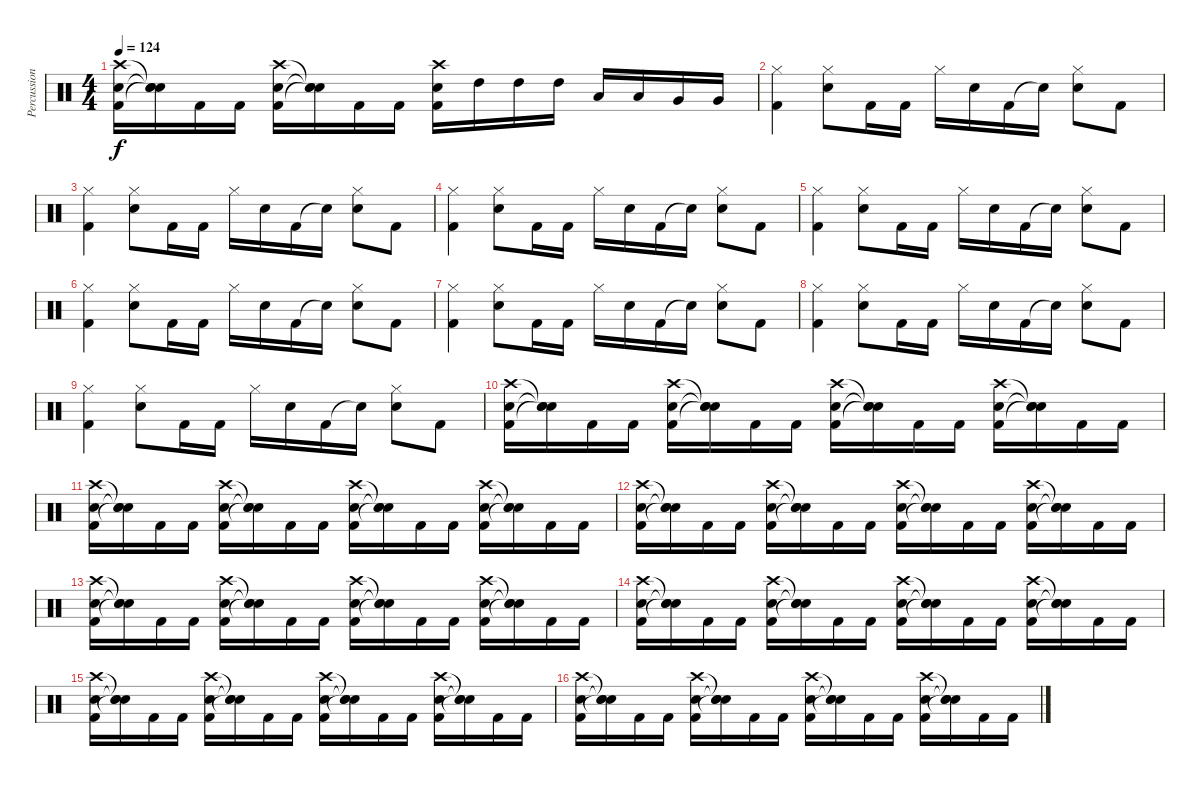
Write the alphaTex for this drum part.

\track ("Percussions" "Percussion") {instrument percussion}
\staff {score}
\articulation defaults
\ts (4 4)
\tempo 124
\clef neutral
\ks c
("Kick (hit) 2" "Electric Snare (hit)" "Crash high (hit)").16{dy f} ("Snare (hit)"{t} "Snare (hit)"{t} "Snare (hit)"{t}).16 "Kick (hit) 2".16 "Kick (hit) 2".16 ("Kick (hit) 2" "Electric Snare (hit)" "Crash high (hit)").16 ("Snare (hit)"{t} "Snare (hit)"{t} "Snare (hit)"{t}).16 "Kick (hit) 2".16 "Kick (hit) 2".16 ("Kick (hit) 2" "Electric Snare (hit)" "Crash high (hit)").16 "High Tom (hit)".16 "High Tom (hit)".16 "High Tom (hit)".16 "Low Tom (hit)".16 "Low Tom (hit)".16 "Very Low Tom (hit)".16 "Very Low Tom (hit)".16 |
("Kick (hit) 2" "Hi-Hat (closed)").4 ("Electric Snare (hit)" "Hi-Hat (closed)").8 "Kick (hit) 2".16 "Kick (hit) 2".16 "Hi-Hat (closed)".16 "Electric Snare (hit)".16 "Kick (hit) 2".16 "Snare (hit)"{t}.16 ("Electric Snare (hit)" "Hi-Hat (closed)").8 "Kick (hit) 2".8 |
("Kick (hit) 2" "Hi-Hat (closed)").4 ("Electric Snare (hit)" "Hi-Hat (closed)").8 "Kick (hit) 2".16 "Kick (hit) 2".16 "Hi-Hat (closed)".16 "Electric Snare (hit)".16 "Kick (hit) 2".16 "Snare (hit)"{t}.16 ("Electric Snare (hit)" "Hi-Hat (closed)").8 "Kick (hit) 2".8 |
("Kick (hit) 2" "Hi-Hat (closed)").4 ("Electric Snare (hit)" "Hi-Hat (closed)").8 "Kick (hit) 2".16 "Kick (hit) 2".16 "Hi-Hat (closed)".16 "Electric Snare (hit)".16 "Kick (hit) 2".16 "Snare (hit)"{t}.16 ("Electric Snare (hit)" "Hi-Hat (closed)").8 "Kick (hit) 2".8 |
("Kick (hit) 2" "Hi-Hat (closed)").4 ("Electric Snare (hit)" "Hi-Hat (closed)").8 "Kick (hit) 2".16 "Kick (hit) 2".16 "Hi-Hat (closed)".16 "Electric Snare (hit)".16 "Kick (hit) 2".16 "Snare (hit)"{t}.16 ("Electric Snare (hit)" "Hi-Hat (closed)").8 "Kick (hit) 2".8 |
("Kick (hit) 2" "Hi-Hat (closed)").4 ("Electric Snare (hit)" "Hi-Hat (closed)").8 "Kick (hit) 2".16 "Kick (hit) 2".16 "Hi-Hat (closed)".16 "Electric Snare (hit)".16 "Kick (hit) 2".16 "Snare (hit)"{t}.16 ("Electric Snare (hit)" "Hi-Hat (closed)").8 "Kick (hit) 2".8 |
("Kick (hit) 2" "Hi-Hat (closed)").4 ("Electric Snare (hit)" "Hi-Hat (closed)").8 "Kick (hit) 2".16 "Kick (hit) 2".16 "Hi-Hat (closed)".16 "Electric Snare (hit)".16 "Kick (hit) 2".16 "Snare (hit)"{t}.16 ("Electric Snare (hit)" "Hi-Hat (closed)").8 "Kick (hit) 2".8 |
("Kick (hit) 2" "Hi-Hat (closed)").4 ("Electric Snare (hit)" "Hi-Hat (closed)").8 "Kick (hit) 2".16 "Kick (hit) 2".16 "Hi-Hat (closed)".16 "Electric Snare (hit)".16 "Kick (hit) 2".16 "Snare (hit)"{t}.16 ("Electric Snare (hit)" "Hi-Hat (closed)").8 "Kick (hit) 2".8 |
("Kick (hit) 2" "Hi-Hat (closed)").4 ("Electric Snare (hit)" "Hi-Hat (closed)").8 "Kick (hit) 2".16 "Kick (hit) 2".16 "Hi-Hat (closed)".16 "Electric Snare (hit)".16 "Kick (hit) 2".16 "Snare (hit)"{t}.16 ("Electric Snare (hit)" "Hi-Hat (closed)").8 "Kick (hit) 2".8 |
("Kick (hit) 2" "Electric Snare (hit)" "Crash high (hit)").16 ("Snare (hit)"{t} "Snare (hit)"{t} "Snare (hit)"{t}).16 "Kick (hit) 2".16 "Kick (hit) 2".16 ("Kick (hit) 2" "Electric Snare (hit)" "Crash high (hit)").16 ("Snare (hit)"{t} "Snare (hit)"{t} "Snare (hit)"{t}).16 "Kick (hit) 2".16 "Kick (hit) 2".16 ("Kick (hit) 2" "Electric Snare (hit)" "Crash high (hit)").16 ("Snare (hit)"{t} "Snare (hit)"{t} "Snare (hit)"{t}).16 "Kick (hit) 2".16 "Kick (hit) 2".16 ("Kick (hit) 2" "Electric Snare (hit)" "Crash high (hit)").16 ("Snare (hit)"{t} "Snare (hit)"{t} "Snare (hit)"{t}).16 "Kick (hit) 2".16 "Kick (hit) 2".16 |
("Kick (hit) 2" "Electric Snare (hit)" "Crash high (hit)").16 ("Snare (hit)"{t} "Snare (hit)"{t} "Snare (hit)"{t}).16 "Kick (hit) 2".16 "Kick (hit) 2".16 ("Kick (hit) 2" "Electric Snare (hit)" "Crash high (hit)").16 ("Snare (hit)"{t} "Snare (hit)"{t} "Snare (hit)"{t}).16 "Kick (hit) 2".16 "Kick (hit) 2".16 ("Kick (hit) 2" "Electric Snare (hit)" "Crash high (hit)").16 ("Snare (hit)"{t} "Snare (hit)"{t} "Snare (hit)"{t}).16 "Kick (hit) 2".16 "Kick (hit) 2".16 ("Kick (hit) 2" "Electric Snare (hit)" "Crash high (hit)").16 ("Snare (hit)"{t} "Snare (hit)"{t} "Snare (hit)"{t}).16 "Kick (hit) 2".16 "Kick (hit) 2".16 |
("Kick (hit) 2" "Electric Snare (hit)" "Crash high (hit)").16 ("Snare (hit)"{t} "Snare (hit)"{t} "Snare (hit)"{t}).16 "Kick (hit) 2".16 "Kick (hit) 2".16 ("Kick (hit) 2" "Electric Snare (hit)" "Crash high (hit)").16 ("Snare (hit)"{t} "Snare (hit)"{t} "Snare (hit)"{t}).16 "Kick (hit) 2".16 "Kick (hit) 2".16 ("Kick (hit) 2" "Electric Snare (hit)" "Crash high (hit)").16 ("Snare (hit)"{t} "Snare (hit)"{t} "Snare (hit)"{t}).16 "Kick (hit) 2".16 "Kick (hit) 2".16 ("Kick (hit) 2" "Electric Snare (hit)" "Crash high (hit)").16 ("Snare (hit)"{t} "Snare (hit)"{t} "Snare (hit)"{t}).16 "Kick (hit) 2".16 "Kick (hit) 2".16 |
("Kick (hit) 2" "Electric Snare (hit)" "Crash high (hit)").16 ("Snare (hit)"{t} "Snare (hit)"{t} "Snare (hit)"{t}).16 "Kick (hit) 2".16 "Kick (hit) 2".16 ("Kick (hit) 2" "Electric Snare (hit)" "Crash high (hit)").16 ("Snare (hit)"{t} "Snare (hit)"{t} "Snare (hit)"{t}).16 "Kick (hit) 2".16 "Kick (hit) 2".16 ("Kick (hit) 2" "Electric Snare (hit)" "Crash high (hit)").16 ("Snare (hit)"{t} "Snare (hit)"{t} "Snare (hit)"{t}).16 "Kick (hit) 2".16 "Kick (hit) 2".16 ("Kick (hit) 2" "Electric Snare (hit)" "Crash high (hit)").16 ("Snare (hit)"{t} "Snare (hit)"{t} "Snare (hit)"{t}).16 "Kick (hit) 2".16 "Kick (hit) 2".16 |
("Kick (hit) 2" "Electric Snare (hit)" "Crash high (hit)").16 ("Snare (hit)"{t} "Snare (hit)"{t} "Snare (hit)"{t}).16 "Kick (hit) 2".16 "Kick (hit) 2".16 ("Kick (hit) 2" "Electric Snare (hit)" "Crash high (hit)").16 ("Snare (hit)"{t} "Snare (hit)"{t} "Snare (hit)"{t}).16 "Kick (hit) 2".16 "Kick (hit) 2".16 ("Kick (hit) 2" "Electric Snare (hit)" "Crash high (hit)").16 ("Snare (hit)"{t} "Snare (hit)"{t} "Snare (hit)"{t}).16 "Kick (hit) 2".16 "Kick (hit) 2".16 ("Kick (hit) 2" "Electric Snare (hit)" "Crash high (hit)").16 ("Snare (hit)"{t} "Snare (hit)"{t} "Snare (hit)"{t}).16 "Kick (hit) 2".16 "Kick (hit) 2".16 |
("Kick (hit) 2" "Electric Snare (hit)" "Crash high (hit)").16 ("Snare (hit)"{t} "Snare (hit)"{t} "Snare (hit)"{t}).16 "Kick (hit) 2".16 "Kick (hit) 2".16 ("Kick (hit) 2" "Electric Snare (hit)" "Crash high (hit)").16 ("Snare (hit)"{t} "Snare (hit)"{t} "Snare (hit)"{t}).16 "Kick (hit) 2".16 "Kick (hit) 2".16 ("Kick (hit) 2" "Electric Snare (hit)" "Crash high (hit)").16 ("Snare (hit)"{t} "Snare (hit)"{t} "Snare (hit)"{t}).16 "Kick (hit) 2".16 "Kick (hit) 2".16 ("Kick (hit) 2" "Electric Snare (hit)" "Crash high (hit)").16 ("Snare (hit)"{t} "Snare (hit)"{t} "Snare (hit)"{t}).16 "Kick (hit) 2".16 "Kick (hit) 2".16 |
("Kick (hit) 2" "Electric Snare (hit)" "Crash high (hit)").16 ("Snare (hit)"{t} "Snare (hit)"{t} "Snare (hit)"{t}).16 "Kick (hit) 2".16 "Kick (hit) 2".16 ("Kick (hit) 2" "Electric Snare (hit)" "Crash high (hit)").16 ("Snare (hit)"{t} "Snare (hit)"{t} "Snare (hit)"{t}).16 "Kick (hit) 2".16 "Kick (hit) 2".16 ("Kick (hit) 2" "Electric Snare (hit)" "Crash high (hit)").16 ("Snare (hit)"{t} "Snare (hit)"{t} "Snare (hit)"{t}).16 "Kick (hit) 2".16 "Kick (hit) 2".16 ("Kick (hit) 2" "Electric Snare (hit)" "Crash high (hit)").16 ("Snare (hit)"{t} "Snare (hit)"{t} "Snare (hit)"{t}).16 "Kick (hit) 2".16 "Kick (hit) 2".16
